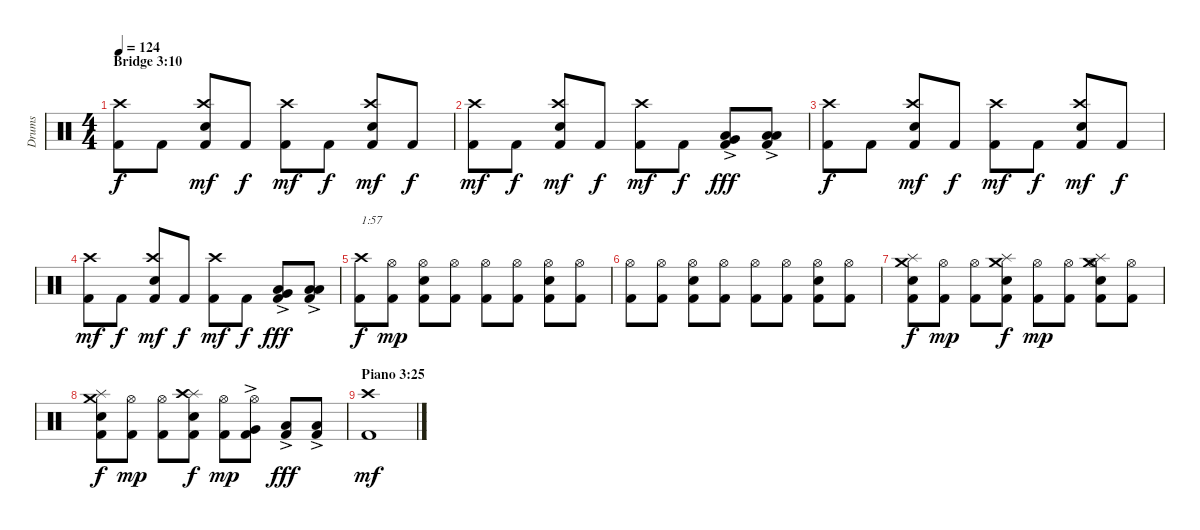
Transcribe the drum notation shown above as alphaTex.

\track ("Drums" "Drums") {instrument percussion}
\staff {score}
\articulation defaults
\ts (4 4)
\section ("" "Bridge 3:10")
\tempo 124
\clef neutral
\ks c
("Kick (hit) 2" "Crash high (hit)").8{dy f} "Kick (hit) 2".8 ("Kick (hit) 2" "Electric Snare (hit)" "Crash high (hit)").8{dy mf} "Kick (hit) 2".8{dy f} ("Kick (hit) 2" "Crash high (hit)").8{dy mf} "Kick (hit) 2".8{dy f} ("Kick (hit) 2" "Electric Snare (hit)" "Crash high (hit)").8{dy mf} "Kick (hit) 2".8{dy f} |
("Kick (hit) 2" "Crash high (hit)").8{dy mf} "Kick (hit) 2".8{dy f} ("Kick (hit) 2" "Electric Snare (hit)" "Crash high (hit)").8{dy mf} "Kick (hit) 2".8{dy f} ("Kick (hit) 2" "Crash high (hit)").8{dy mf} "Kick (hit) 2".8{dy f} ("Kick (hit) 2" "Very Low Tom (hit)"{ac} "Low Tom (hit)"{ac}).8{dy fff} ("Kick (hit) 2" "Low Floor Tom (hit)"{ac} "Low Floor Tom (hit)"{ac}).8 |
("Kick (hit) 2" "Crash high (hit)").8{dy f} "Kick (hit) 2".8 ("Kick (hit) 2" "Electric Snare (hit)" "Crash high (hit)").8{dy mf} "Kick (hit) 2".8{dy f} ("Kick (hit) 2" "Crash high (hit)").8{dy mf} "Kick (hit) 2".8{dy f} ("Kick (hit) 2" "Electric Snare (hit)" "Crash high (hit)").8{dy mf} "Kick (hit) 2".8{dy f} |
("Kick (hit) 2" "Crash high (hit)").8{dy mf} "Kick (hit) 2".8{dy f} ("Kick (hit) 2" "Electric Snare (hit)" "Crash high (hit)").8{dy mf} "Kick (hit) 2".8{dy f} ("Kick (hit) 2" "Crash high (hit)").8{dy mf} "Kick (hit) 2".8{dy f} ("Kick (hit) 2" "Very Low Tom (hit)"{ac} "Low Tom (hit)"{ac}).8{dy fff} ("Kick (hit) 2" "Low Floor Tom (hit)"{ac} "Low Floor Tom (hit)"{ac}).8 |
("Kick (hit) 2" "Crash high (hit)").8{txt "1:57" dy f} ("Kick (hit) 2" "Hi-Hat (open)").8{dy mp} ("Kick (hit) 2" "Electric Snare (hit)" "Hi-Hat (open)").8 ("Kick (hit) 2" "Hi-Hat (open)").8 ("Kick (hit) 2" "Hi-Hat (open)").8 ("Kick (hit) 2" "Hi-Hat (open)").8 ("Kick (hit) 2" "Electric Snare (hit)" "Hi-Hat (open)").8 ("Kick (hit) 2" "Hi-Hat (open)").8 |
("Kick (hit) 2" "Hi-Hat (open)").8 ("Kick (hit) 2" "Hi-Hat (open)").8 ("Kick (hit) 2" "Electric Snare (hit)" "Hi-Hat (open)").8 ("Kick (hit) 2" "Hi-Hat (open)").8 ("Kick (hit) 2" "Hi-Hat (open)").8 ("Kick (hit) 2" "Hi-Hat (open)").8 ("Kick (hit) 2" "Electric Snare (hit)" "Hi-Hat (open)").8 ("Kick (hit) 2" "Hi-Hat (open)").8 |
("Kick (hit) 2" "Electric Snare (hit)" "Splash (hit)" "Crash medium (hit)").8{dy f} ("Kick (hit) 2" "Hi-Hat (open)").8{dy mp} ("Kick (hit) 2" "Hi-Hat (open)").8 ("Kick (hit) 2" "Electric Snare (hit)" "Splash (hit)" "Crash medium (hit)").8{dy f} ("Kick (hit) 2" "Hi-Hat (open)").8{dy mp} ("Kick (hit) 2" "Hi-Hat (open)").8 ("Kick (hit) 2" "Electric Snare (hit)" "Hi-Hat (open)" "Splash (hit)" "Crash medium (hit)").8 ("Kick (hit) 2" "Hi-Hat (open)").8 |
("Kick (hit) 2" "Electric Snare (hit)" "Crash medium (hit)" "Splash (hit)").8{dy f} ("Kick (hit) 2" "Hi-Hat (open)").8{dy mp} ("Kick (hit) 2" "Hi-Hat (open)").8 ("Kick (hit) 2" "Electric Snare (hit)" "Splash (hit)" "Crash high (hit)").8{dy f} ("Kick (hit) 2" "Hi-Hat (open)").8{dy mp} ("Kick (hit) 2" "Very Low Tom (hit)"{ac} "Hi-Hat (open)").8 ("Kick (hit) 2" "Low Tom (hit)"{ac}).8{dy fff} ("Kick (hit) 2" "Low Tom (hit)"{ac}).8 |
\section ("" "Piano 3:25")
("Kick (hit) 2" "Crash high (hit)").1{dy mf}
